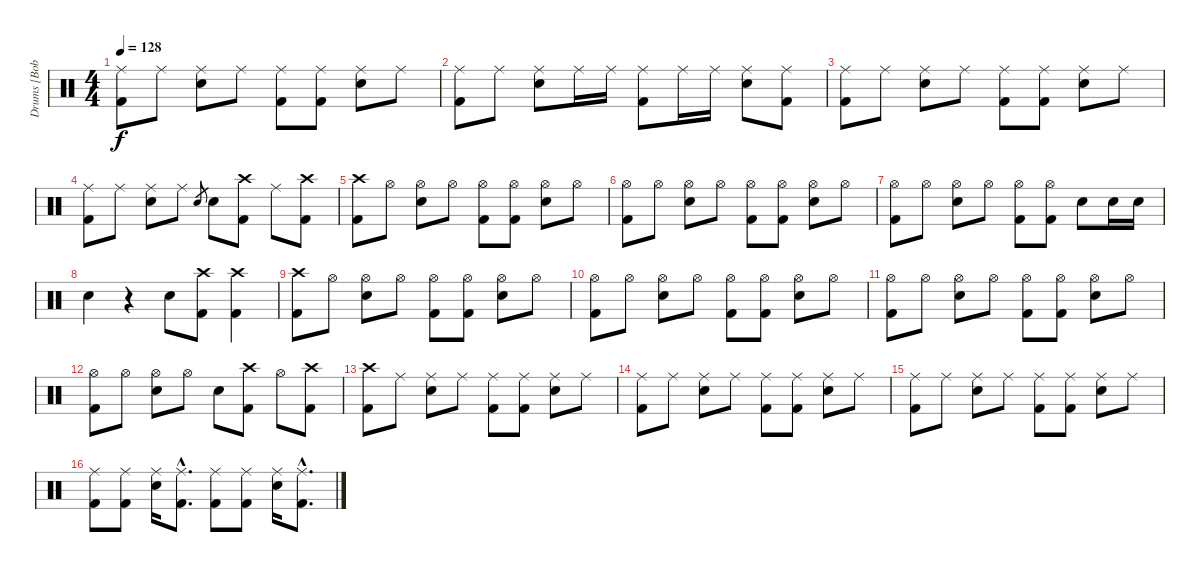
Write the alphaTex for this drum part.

\track ("Drums [Bobby Blotzer]" "Drums [Bob") {instrument percussion}
\staff {score}
\articulation defaults
\ts (4 4)
\tempo 128
\clef neutral
\ks c
("Ride (middle)" "Kick (hit) 2").8{dy f} "Ride (middle)".8 ("Ride (middle)" "Electric Snare (hit)").8 "Ride (middle)".8 ("Ride (middle)" "Kick (hit) 2").8 ("Ride (middle)" "Kick (hit) 2").8 ("Ride (middle)" "Electric Snare (hit)").8 "Ride (middle)".8 |
("Ride (middle)" "Kick (hit) 2").8 "Ride (middle)".8 ("Ride (middle)" "Electric Snare (hit)").8 "Ride (middle)".16 "Ride (middle)".16 ("Ride (middle)" "Kick (hit) 2").8 "Ride (middle)".16 "Ride (middle)".16 ("Ride (middle)" "Electric Snare (hit)").8 ("Ride (middle)" "Kick (hit) 2").8 |
("Ride (middle)" "Kick (hit) 2").8 "Ride (middle)".8 ("Ride (middle)" "Electric Snare (hit)").8 "Ride (middle)".8 ("Ride (middle)" "Kick (hit) 2").8 ("Ride (middle)" "Kick (hit) 2").8 ("Ride (middle)" "Electric Snare (hit)").8 "Ride (middle)".8 |
("Ride (middle)" "Kick (hit) 2").8 "Ride (middle)".8 ("Ride (middle)" "Electric Snare (hit)").8 "Ride (middle)".8 "Electric Snare (hit)".8{gr} "Electric Snare (hit)".8 ("Crash high (hit)" "Kick (hit) 2").8 "Ride (middle)".8 ("Crash high (hit)" "Kick (hit) 2").8 |
("Crash high (hit)" "Kick (hit) 2").8 "Hi-Hat (open)".8 ("Hi-Hat (open)" "Electric Snare (hit)").8 "Hi-Hat (open)".8 ("Hi-Hat (open)" "Kick (hit) 2").8 ("Hi-Hat (open)" "Kick (hit) 2").8 ("Hi-Hat (open)" "Electric Snare (hit)").8 "Hi-Hat (open)".8 |
("Hi-Hat (open)" "Kick (hit) 2").8 "Hi-Hat (open)".8 ("Hi-Hat (open)" "Electric Snare (hit)").8 "Hi-Hat (open)".8 ("Hi-Hat (open)" "Kick (hit) 2").8 ("Hi-Hat (open)" "Kick (hit) 2").8 ("Hi-Hat (open)" "Electric Snare (hit)").8 "Hi-Hat (open)".8 |
("Hi-Hat (open)" "Kick (hit) 2").8 "Hi-Hat (open)".8 ("Hi-Hat (open)" "Electric Snare (hit)").8 "Hi-Hat (open)".8 ("Hi-Hat (open)" "Kick (hit) 2").8 ("Hi-Hat (open)" "Kick (hit) 2").8 "Electric Snare (hit)".8 "Electric Snare (hit)".16 "Electric Snare (hit)".16 |
"Electric Snare (hit)".4 r.4 "Electric Snare (hit)".8 ("Crash high (hit)" "Kick (hit) 2").8 ("Crash high (hit)" "Kick (hit) 2").4 |
("Crash high (hit)" "Kick (hit) 2").8 "Hi-Hat (open)".8 ("Hi-Hat (open)" "Electric Snare (hit)").8 "Hi-Hat (open)".8 ("Hi-Hat (open)" "Kick (hit) 2").8 ("Hi-Hat (open)" "Kick (hit) 2").8 ("Hi-Hat (open)" "Electric Snare (hit)").8 "Hi-Hat (open)".8 |
("Hi-Hat (open)" "Kick (hit) 2").8 "Hi-Hat (open)".8 ("Hi-Hat (open)" "Electric Snare (hit)").8 "Hi-Hat (open)".8 ("Hi-Hat (open)" "Kick (hit) 2").8 ("Hi-Hat (open)" "Kick (hit) 2").8 ("Hi-Hat (open)" "Electric Snare (hit)").8 "Hi-Hat (open)".8 |
("Hi-Hat (open)" "Kick (hit) 2").8 "Hi-Hat (open)".8 ("Hi-Hat (open)" "Electric Snare (hit)").8 "Hi-Hat (open)".8 ("Hi-Hat (open)" "Kick (hit) 2").8 ("Hi-Hat (open)" "Kick (hit) 2").8 ("Hi-Hat (open)" "Electric Snare (hit)").8 "Hi-Hat (open)".8 |
("Hi-Hat (open)" "Kick (hit) 2").8 "Hi-Hat (open)".8 ("Hi-Hat (open)" "Electric Snare (hit)").8 "Hi-Hat (open)".8 "Electric Snare (hit)".8 ("Crash high (hit)" "Kick (hit) 2").8 "Hi-Hat (open)".8 ("Crash high (hit)" "Kick (hit) 2").8 |
("Crash high (hit)" "Kick (hit) 2").8 "Ride (middle)".8 ("Ride (middle)" "Electric Snare (hit)").8 "Ride (middle)".8 ("Ride (middle)" "Kick (hit) 2").8 ("Ride (middle)" "Kick (hit) 2").8 ("Ride (middle)" "Electric Snare (hit)").8 "Ride (middle)".8 |
("Ride (middle)" "Kick (hit) 2").8 "Ride (middle)".8 ("Ride (middle)" "Electric Snare (hit)").8 "Ride (middle)".8 ("Ride (middle)" "Kick (hit) 2").8 ("Ride (middle)" "Kick (hit) 2").8 ("Ride (middle)" "Electric Snare (hit)").8 "Ride (middle)".8 |
("Ride (middle)" "Kick (hit) 2").8 "Ride (middle)".8 ("Ride (middle)" "Electric Snare (hit)").8 "Ride (middle)".8 ("Ride (middle)" "Kick (hit) 2").8 ("Ride (middle)" "Kick (hit) 2").8 ("Ride (middle)" "Electric Snare (hit)").8 "Ride (middle)".8 |
("Ride (middle)" "Kick (hit) 2").8 ("Ride (middle)" "Kick (hit) 2").8 ("Ride (middle)" "Electric Snare (hit)").16 ("Ride (middle)"{hac} "Kick (hit) 2"{hac}).8{d} ("Ride (middle)" "Kick (hit) 2").8 ("Ride (middle)" "Kick (hit) 2").8 ("Ride (middle)" "Electric Snare (hit)").16 ("Ride (middle)"{hac} "Kick (hit) 2"{hac}).8{d}
